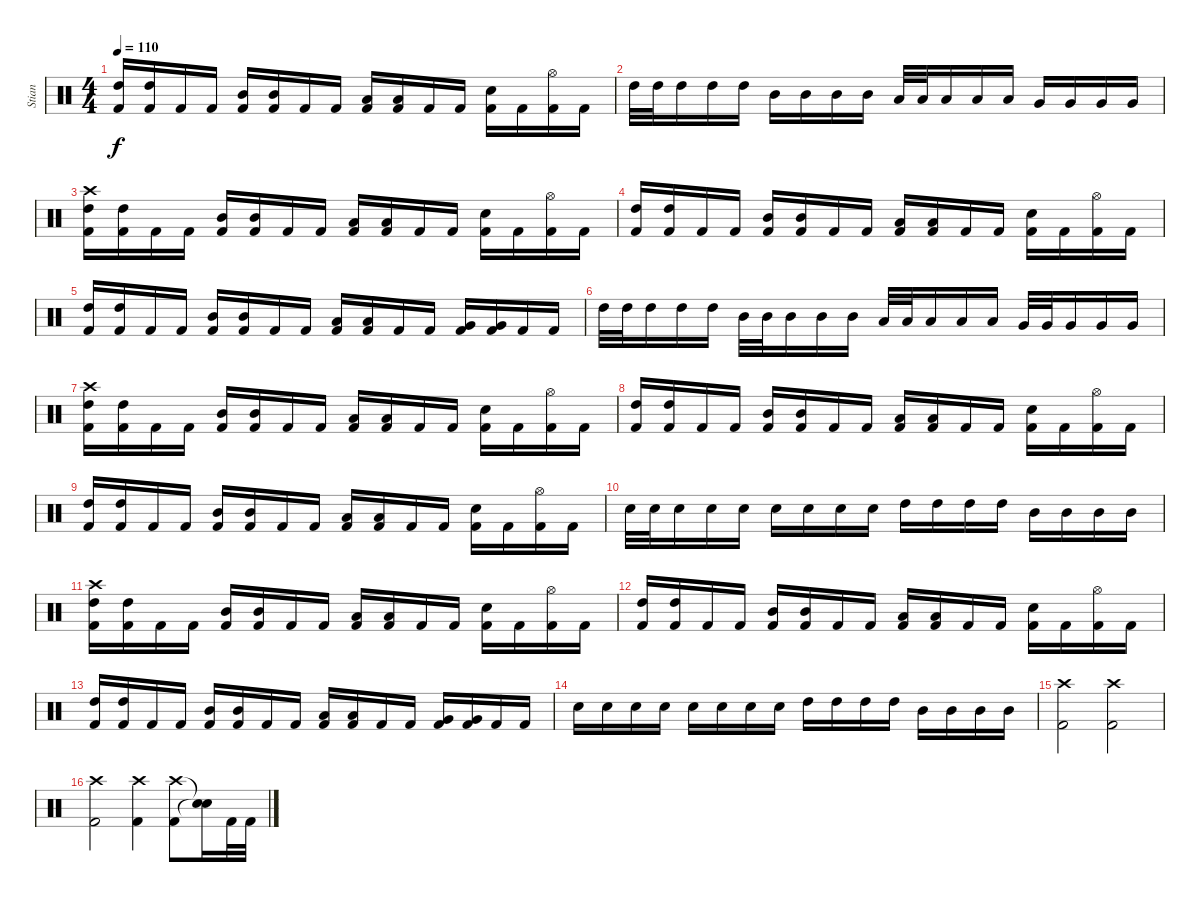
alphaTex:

\track ("Stian" "Stian") {instrument percussion}
\staff {score}
\articulation defaults
\ts (4 4)
\tempo 110
\clef neutral
\ks c
("High Tom (hit)" "Kick (hit) 2").16{dy f} ("High Tom (hit)" "Kick (hit) 2").16 "Kick (hit) 2".16 "Kick (hit) 2".16 ("Mid Tom (hit)" "Kick (hit) 2").16 ("Mid Tom (hit)" "Kick (hit) 2").16 "Kick (hit) 2".16 "Kick (hit) 2".16 ("Low Tom (hit)" "Kick (hit) 2").16 ("Low Tom (hit)" "Kick (hit) 2").16 "Kick (hit) 2".16 "Kick (hit) 2".16 ("Electric Snare (hit)" "Kick (hit) 2").16 "Kick (hit) 2".16 ("Hi-Hat (open)" "Kick (hit) 2").16 "Kick (hit) 2".16 |
"High Tom (hit)".32 "High Tom (hit)".32 "High Tom (hit)".16 "High Tom (hit)".16 "High Tom (hit)".16 "Mid Tom (hit)".16 "Mid Tom (hit)".16 "Mid Tom (hit)".16 "Mid Tom (hit)".16 "Low Tom (hit)".32 "Low Tom (hit)".32 "Low Tom (hit)".16 "Low Tom (hit)".16 "Low Tom (hit)".16 "Very Low Tom (hit)".16 "Very Low Tom (hit)".16 "Very Low Tom (hit)".16 "Very Low Tom (hit)".16 |
("Crash high (hit)" "High Tom (hit)" "Kick (hit) 2").16 ("High Tom (hit)" "Kick (hit) 2").16 "Kick (hit) 2".16 "Kick (hit) 2".16 ("Mid Tom (hit)" "Kick (hit) 2").16 ("Mid Tom (hit)" "Kick (hit) 2").16 "Kick (hit) 2".16 "Kick (hit) 2".16 ("Low Tom (hit)" "Kick (hit) 2").16 ("Low Tom (hit)" "Kick (hit) 2").16 "Kick (hit) 2".16 "Kick (hit) 2".16 ("Electric Snare (hit)" "Kick (hit) 2").16 "Kick (hit) 2".16 ("Hi-Hat (open)" "Kick (hit) 2").16 "Kick (hit) 2".16 |
("High Tom (hit)" "Kick (hit) 2").16 ("High Tom (hit)" "Kick (hit) 2").16 "Kick (hit) 2".16 "Kick (hit) 2".16 ("Mid Tom (hit)" "Kick (hit) 2").16 ("Mid Tom (hit)" "Kick (hit) 2").16 "Kick (hit) 2".16 "Kick (hit) 2".16 ("Low Tom (hit)" "Kick (hit) 2").16 ("Low Tom (hit)" "Kick (hit) 2").16 "Kick (hit) 2".16 "Kick (hit) 2".16 ("Electric Snare (hit)" "Kick (hit) 2").16 "Kick (hit) 2".16 ("Hi-Hat (open)" "Kick (hit) 2").16 "Kick (hit) 2".16 |
("High Tom (hit)" "Kick (hit) 2").16 ("High Tom (hit)" "Kick (hit) 2").16 "Kick (hit) 2".16 "Kick (hit) 2".16 ("Mid Tom (hit)" "Kick (hit) 2").16 ("Mid Tom (hit)" "Kick (hit) 2").16 "Kick (hit) 2".16 "Kick (hit) 2".16 ("Low Tom (hit)" "Kick (hit) 2").16 ("Low Tom (hit)" "Kick (hit) 2").16 "Kick (hit) 2".16 "Kick (hit) 2".16 ("Very Low Tom (hit)" "Kick (hit) 2").16 ("Very Low Tom (hit)" "Kick (hit) 2").16 "Kick (hit) 2".16 "Kick (hit) 2".16 |
"High Tom (hit)".32 "High Tom (hit)".32 "High Tom (hit)".16 "High Tom (hit)".16 "High Tom (hit)".16 "Mid Tom (hit)".32 "Mid Tom (hit)".32 "Mid Tom (hit)".16 "Mid Tom (hit)".16 "Mid Tom (hit)".16 "Low Tom (hit)".32 "Low Tom (hit)".32 "Low Tom (hit)".16 "Low Tom (hit)".16 "Low Tom (hit)".16 "Very Low Tom (hit)".32 "Very Low Tom (hit)".32 "Very Low Tom (hit)".16 "Very Low Tom (hit)".16 "Very Low Tom (hit)".16 |
("Crash high (hit)" "High Tom (hit)" "Kick (hit) 2").16 ("High Tom (hit)" "Kick (hit) 2").16 "Kick (hit) 2".16 "Kick (hit) 2".16 ("Mid Tom (hit)" "Kick (hit) 2").16 ("Mid Tom (hit)" "Kick (hit) 2").16 "Kick (hit) 2".16 "Kick (hit) 2".16 ("Low Tom (hit)" "Kick (hit) 2").16 ("Low Tom (hit)" "Kick (hit) 2").16 "Kick (hit) 2".16 "Kick (hit) 2".16 ("Electric Snare (hit)" "Kick (hit) 2").16 "Kick (hit) 2".16 ("Hi-Hat (open)" "Kick (hit) 2").16 "Kick (hit) 2".16 |
("High Tom (hit)" "Kick (hit) 2").16 ("High Tom (hit)" "Kick (hit) 2").16 "Kick (hit) 2".16 "Kick (hit) 2".16 ("Mid Tom (hit)" "Kick (hit) 2").16 ("Mid Tom (hit)" "Kick (hit) 2").16 "Kick (hit) 2".16 "Kick (hit) 2".16 ("Low Tom (hit)" "Kick (hit) 2").16 ("Low Tom (hit)" "Kick (hit) 2").16 "Kick (hit) 2".16 "Kick (hit) 2".16 ("Electric Snare (hit)" "Kick (hit) 2").16 "Kick (hit) 2".16 ("Hi-Hat (open)" "Kick (hit) 2").16 "Kick (hit) 2".16 |
("High Tom (hit)" "Kick (hit) 2").16 ("High Tom (hit)" "Kick (hit) 2").16 "Kick (hit) 2".16 "Kick (hit) 2".16 ("Mid Tom (hit)" "Kick (hit) 2").16 ("Mid Tom (hit)" "Kick (hit) 2").16 "Kick (hit) 2".16 "Kick (hit) 2".16 ("Low Tom (hit)" "Kick (hit) 2").16 ("Low Tom (hit)" "Kick (hit) 2").16 "Kick (hit) 2".16 "Kick (hit) 2".16 ("Electric Snare (hit)" "Kick (hit) 2").16 "Kick (hit) 2".16 ("Hi-Hat (open)" "Kick (hit) 2").16 "Kick (hit) 2".16 |
"Electric Snare (hit)".32 "Electric Snare (hit)".32 "Electric Snare (hit)".16 "Electric Snare (hit)".16 "Electric Snare (hit)".16 "Electric Snare (hit)".16 "Electric Snare (hit)".16 "Electric Snare (hit)".16 "Electric Snare (hit)".16 "High Tom (hit)".16 "High Tom (hit)".16 "High Tom (hit)".16 "High Tom (hit)".16 "Mid Tom (hit)".16 "Mid Tom (hit)".16 "Mid Tom (hit)".16 "Mid Tom (hit)".16 |
("Crash high (hit)" "High Tom (hit)" "Kick (hit) 2").16 ("High Tom (hit)" "Kick (hit) 2").16 "Kick (hit) 2".16 "Kick (hit) 2".16 ("Mid Tom (hit)" "Kick (hit) 2").16 ("Mid Tom (hit)" "Kick (hit) 2").16 "Kick (hit) 2".16 "Kick (hit) 2".16 ("Low Tom (hit)" "Kick (hit) 2").16 ("Low Tom (hit)" "Kick (hit) 2").16 "Kick (hit) 2".16 "Kick (hit) 2".16 ("Electric Snare (hit)" "Kick (hit) 2").16 "Kick (hit) 2".16 ("Hi-Hat (open)" "Kick (hit) 2").16 "Kick (hit) 2".16 |
("High Tom (hit)" "Kick (hit) 2").16 ("High Tom (hit)" "Kick (hit) 2").16 "Kick (hit) 2".16 "Kick (hit) 2".16 ("Mid Tom (hit)" "Kick (hit) 2").16 ("Mid Tom (hit)" "Kick (hit) 2").16 "Kick (hit) 2".16 "Kick (hit) 2".16 ("Low Tom (hit)" "Kick (hit) 2").16 ("Low Tom (hit)" "Kick (hit) 2").16 "Kick (hit) 2".16 "Kick (hit) 2".16 ("Electric Snare (hit)" "Kick (hit) 2").16 "Kick (hit) 2".16 ("Hi-Hat (open)" "Kick (hit) 2").16 "Kick (hit) 2".16 |
("High Tom (hit)" "Kick (hit) 2").16 ("High Tom (hit)" "Kick (hit) 2").16 "Kick (hit) 2".16 "Kick (hit) 2".16 ("Mid Tom (hit)" "Kick (hit) 2").16 ("Mid Tom (hit)" "Kick (hit) 2").16 "Kick (hit) 2".16 "Kick (hit) 2".16 ("Low Tom (hit)" "Kick (hit) 2").16 ("Low Tom (hit)" "Kick (hit) 2").16 "Kick (hit) 2".16 "Kick (hit) 2".16 ("Very Low Tom (hit)" "Kick (hit) 2").16 ("Very Low Tom (hit)" "Kick (hit) 2").16 "Kick (hit) 2".16 "Kick (hit) 2".16 |
"Electric Snare (hit)".16 "Electric Snare (hit)".16 "Electric Snare (hit)".16 "Electric Snare (hit)".16 "Electric Snare (hit)".16 "Electric Snare (hit)".16 "Electric Snare (hit)".16 "Electric Snare (hit)".16 "High Tom (hit)".16 "High Tom (hit)".16 "High Tom (hit)".16 "High Tom (hit)".16 "Mid Tom (hit)".16 "Mid Tom (hit)".16 "Mid Tom (hit)".16 "Mid Tom (hit)".16 |
("Crash high (hit)" "Kick (hit) 2").2 ("Crash high (hit)" "Kick (hit) 2").2 |
("Crash high (hit)" "Kick (hit) 2").2 ("Crash high (hit)" "Kick (hit) 2").4 ("Crash high (hit)" "Kick (hit) 2").8 ("Snare (hit)"{t} "Snare (hit)"{t}).16 "Kick (hit) 2".32 "Kick (hit) 2".32
